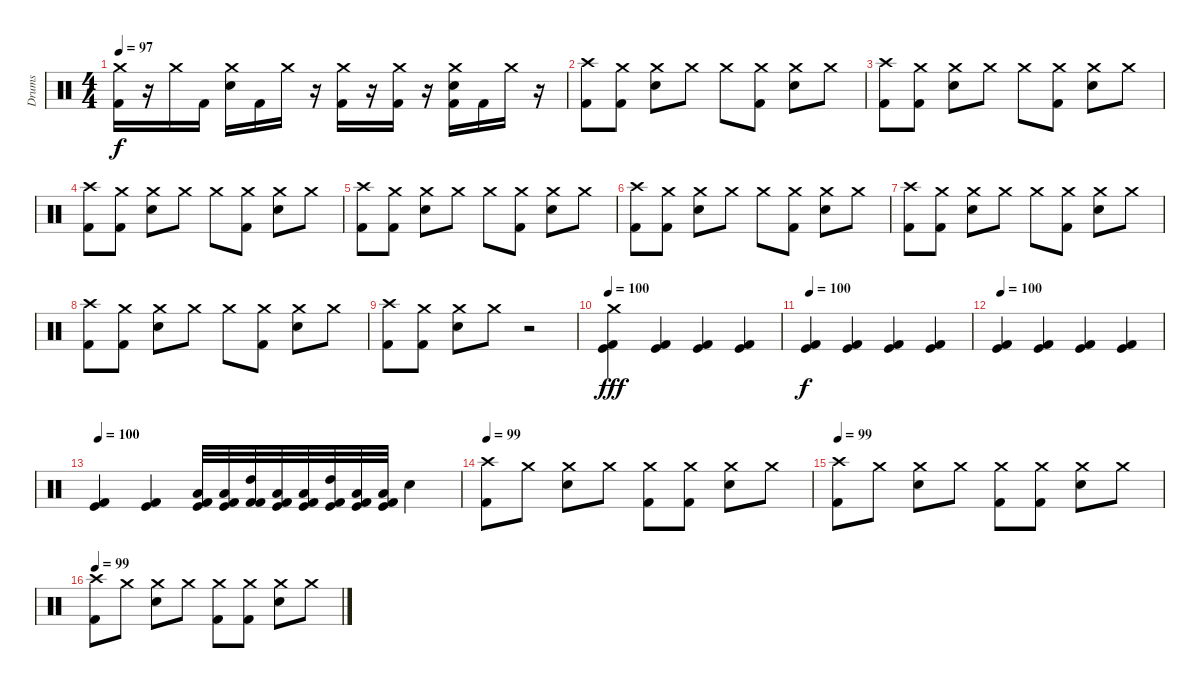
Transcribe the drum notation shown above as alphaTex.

\track ("Drums" "Drums") {instrument percussion}
\staff {score}
\articulation defaults
\ts (4 4)
\tempo 97
\clef neutral
\ks c
("Crash medium (hit)" "Kick (hit) 2").16{dy f} r.16 "Crash medium (hit)".16 "Kick (hit) 2".16 ("Crash medium (hit)" "Electric Snare (hit)").16 "Kick (hit) 2".16 "Crash medium (hit)".16 r.16 ("Crash medium (hit)" "Kick (hit) 2").16 r.16 ("Crash medium (hit)" "Kick (hit) 2").16 r.16 ("Crash medium (hit)" "Electric Snare (hit)" "Kick (hit) 2").16 "Kick (hit) 2".16 "Crash medium (hit)".16 r.16 |
("Crash high (hit)" "Kick (hit) 2").8 ("Crash medium (hit)" "Kick (hit) 2").8 ("Crash medium (hit)" "Electric Snare (hit)").8 "Crash medium (hit)".8 "Crash medium (hit)".8 ("Crash medium (hit)" "Kick (hit) 2").8 ("Crash medium (hit)" "Electric Snare (hit)").8 "Crash medium (hit)".8 |
("Crash high (hit)" "Kick (hit) 2").8 ("Crash medium (hit)" "Kick (hit) 2").8 ("Crash medium (hit)" "Electric Snare (hit)").8 "Crash medium (hit)".8 "Crash medium (hit)".8 ("Crash medium (hit)" "Kick (hit) 2").8 ("Crash medium (hit)" "Electric Snare (hit)").8 "Crash medium (hit)".8 |
("Crash high (hit)" "Kick (hit) 2").8 ("Crash medium (hit)" "Kick (hit) 2").8 ("Crash medium (hit)" "Electric Snare (hit)").8 "Crash medium (hit)".8 "Crash medium (hit)".8 ("Crash medium (hit)" "Kick (hit) 2").8 ("Crash medium (hit)" "Electric Snare (hit)").8 "Crash medium (hit)".8 |
("Crash high (hit)" "Kick (hit) 2").8 ("Crash medium (hit)" "Kick (hit) 2").8 ("Crash medium (hit)" "Electric Snare (hit)").8 "Crash medium (hit)".8 "Crash medium (hit)".8 ("Crash medium (hit)" "Kick (hit) 2").8 ("Crash medium (hit)" "Electric Snare (hit)").8 "Crash medium (hit)".8 |
("Crash high (hit)" "Kick (hit) 2").8 ("Crash medium (hit)" "Kick (hit) 2").8 ("Crash medium (hit)" "Electric Snare (hit)").8 "Crash medium (hit)".8 "Crash medium (hit)".8 ("Crash medium (hit)" "Kick (hit) 2").8 ("Crash medium (hit)" "Electric Snare (hit)").8 "Crash medium (hit)".8 |
("Crash high (hit)" "Kick (hit) 2").8 ("Crash medium (hit)" "Kick (hit) 2").8 ("Crash medium (hit)" "Electric Snare (hit)").8 "Crash medium (hit)".8 "Crash medium (hit)".8 ("Crash medium (hit)" "Kick (hit) 2").8 ("Crash medium (hit)" "Electric Snare (hit)").8 "Crash medium (hit)".8 |
("Crash high (hit)" "Kick (hit) 2").8 ("Crash medium (hit)" "Kick (hit) 2").8 ("Crash medium (hit)" "Electric Snare (hit)").8 "Crash medium (hit)".8 "Crash medium (hit)".8 ("Crash medium (hit)" "Kick (hit) 2").8 ("Crash medium (hit)" "Electric Snare (hit)").8 "Crash medium (hit)".8 |
("Crash high (hit)" "Kick (hit) 2").8 ("Crash medium (hit)" "Kick (hit) 2").8 ("Crash medium (hit)" "Electric Snare (hit)").8 "Crash medium (hit)".8 r.2 |
\tempo 100
("Crash medium (hit)" "Kick (hit)" "Kick (hit) 2").4{dy fff} ("Kick (hit)" "Kick (hit) 2").4 ("Kick (hit)" "Kick (hit) 2").4 ("Kick (hit)" "Kick (hit) 2").4 |
\tempo 100
("Kick (hit)" "Kick (hit) 2").4{dy f} ("Kick (hit)" "Kick (hit) 2").4 ("Kick (hit)" "Kick (hit) 2").4 ("Kick (hit)" "Kick (hit) 2").4 |
\tempo 100
("Kick (hit)" "Kick (hit) 2").4 ("Kick (hit)" "Kick (hit) 2").4 ("Kick (hit)" "Kick (hit) 2").4 ("Kick (hit)" "Kick (hit) 2").4 |
\tempo 100
("Kick (hit)" "Kick (hit) 2").4 ("Kick (hit)" "Kick (hit) 2").4 ("Low Tom (hit)" "Kick (hit)" "Kick (hit) 2").32 ("Low Tom (hit)" "Kick (hit)" "Kick (hit) 2").32 ("High Tom (hit)" "Kick (hit) 2" "Kick (hit) 2").32 ("Low Tom (hit)" "Kick (hit)" "Kick (hit) 2").32 ("Low Tom (hit)" "Kick (hit)" "Kick (hit) 2").32 ("High Tom (hit)" "Kick (hit)" "Kick (hit) 2").32 ("Low Tom (hit)" "Kick (hit)" "Kick (hit) 2").32 ("Low Tom (hit)" "Kick (hit)" "Kick (hit) 2").32 "Electric Snare (hit)".4 |
\tempo 99
("Crash high (hit)" "Kick (hit) 2").8 "Crash medium (hit)".8 ("Crash medium (hit)" "Electric Snare (hit)").8 "Crash medium (hit)".8 ("Crash medium (hit)" "Kick (hit) 2").8 ("Crash medium (hit)" "Kick (hit) 2").8 ("Crash medium (hit)" "Electric Snare (hit)").8 "Crash medium (hit)".8 |
\tempo 99
("Crash high (hit)" "Kick (hit) 2").8 "Crash medium (hit)".8 ("Crash medium (hit)" "Electric Snare (hit)").8 "Crash medium (hit)".8 ("Crash medium (hit)" "Kick (hit) 2").8 ("Crash medium (hit)" "Kick (hit) 2").8 ("Crash medium (hit)" "Electric Snare (hit)").8 "Crash medium (hit)".8 |
\tempo 99
("Crash high (hit)" "Kick (hit) 2").8 "Crash medium (hit)".8 ("Crash medium (hit)" "Electric Snare (hit)").8 "Crash medium (hit)".8 ("Crash medium (hit)" "Kick (hit) 2").8 ("Crash medium (hit)" "Kick (hit) 2").8 ("Crash medium (hit)" "Electric Snare (hit)").8 "Crash medium (hit)".8
